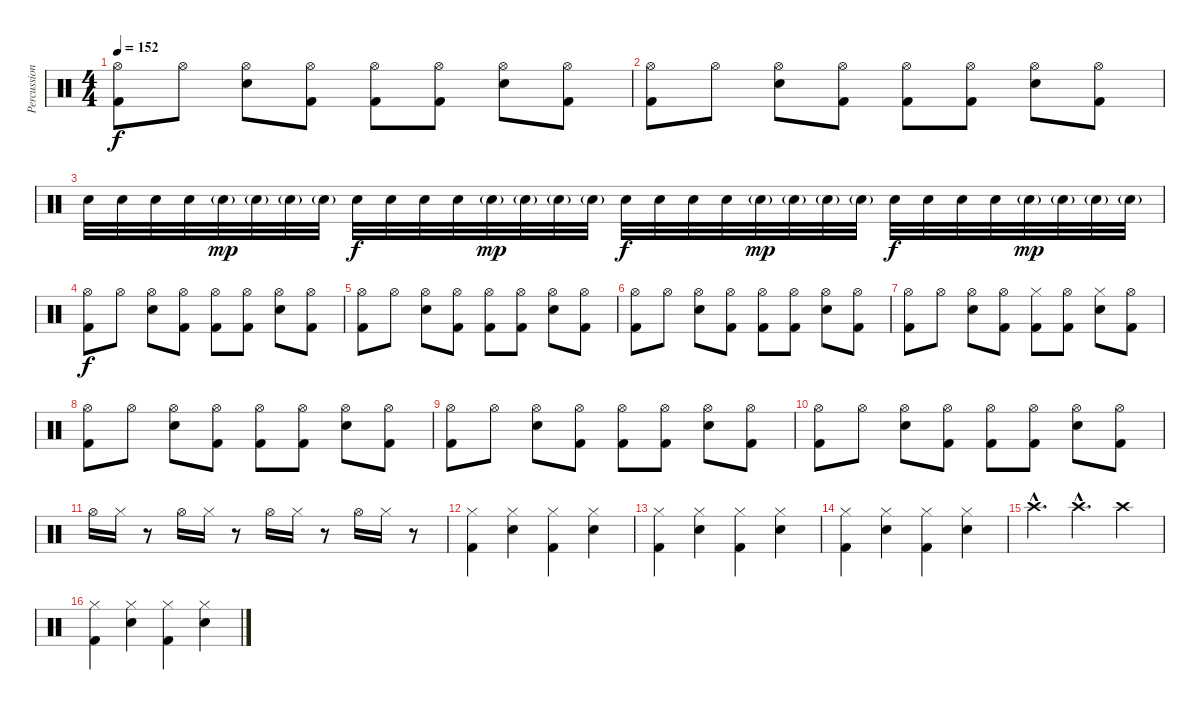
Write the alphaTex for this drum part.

\track ("Percussion" "Percussion") {instrument percussion}
\staff {score}
\articulation defaults
\ts (4 4)
\tempo 152
\clef neutral
\ks c
("Kick (hit) 2" "Hi-Hat (open)").8{dy f} "Hi-Hat (open)".8 ("Snare (hit) 2" "Hi-Hat (open)").8 ("Kick (hit) 2" "Hi-Hat (open)").8 ("Kick (hit) 2" "Hi-Hat (open)").8 ("Kick (hit) 2" "Hi-Hat (open)").8 ("Snare (hit) 2" "Hi-Hat (open)").8 ("Kick (hit) 2" "Hi-Hat (open)").8 |
("Kick (hit) 2" "Hi-Hat (open)").8 "Hi-Hat (open)".8 ("Snare (hit) 2" "Hi-Hat (open)").8 ("Kick (hit) 2" "Hi-Hat (open)").8 ("Kick (hit) 2" "Hi-Hat (open)").8 ("Kick (hit) 2" "Hi-Hat (open)").8 ("Snare (hit) 2" "Hi-Hat (open)").8 ("Kick (hit) 2" "Hi-Hat (open)").8 |
"Snare (hit) 2".32 "Snare (hit) 2".32 "Snare (hit) 2".32 "Snare (hit) 2".32 "Snare (hit) 2"{g}.32{dy mp} "Snare (hit) 2"{g}.32 "Snare (hit) 2"{g}.32 "Snare (hit) 2"{g}.32 "Snare (hit) 2".32{dy f} "Snare (hit) 2".32 "Snare (hit) 2".32 "Snare (hit) 2".32 "Snare (hit) 2"{g}.32{dy mp} "Snare (hit) 2"{g}.32 "Snare (hit) 2"{g}.32 "Snare (hit) 2"{g}.32 "Snare (hit) 2".32{dy f} "Snare (hit) 2".32 "Snare (hit) 2".32 "Snare (hit) 2".32 "Snare (hit) 2"{g}.32{dy mp} "Snare (hit) 2"{g}.32 "Snare (hit) 2"{g}.32 "Snare (hit) 2"{g}.32 "Snare (hit) 2".32{dy f} "Snare (hit) 2".32 "Snare (hit) 2".32 "Snare (hit) 2".32 "Snare (hit) 2"{g}.32{dy mp} "Snare (hit) 2"{g}.32 "Snare (hit) 2"{g}.32 "Snare (hit) 2"{g}.32 |
("Kick (hit) 2" "Hi-Hat (open)").8{dy f} "Hi-Hat (open)".8 ("Snare (hit) 2" "Hi-Hat (open)").8 ("Kick (hit) 2" "Hi-Hat (open)").8 ("Kick (hit) 2" "Hi-Hat (open)").8 ("Kick (hit) 2" "Hi-Hat (open)").8 ("Snare (hit) 2" "Hi-Hat (open)").8 ("Kick (hit) 2" "Hi-Hat (open)").8 |
("Kick (hit) 2" "Hi-Hat (open)").8 "Hi-Hat (open)".8 ("Snare (hit) 2" "Hi-Hat (open)").8 ("Kick (hit) 2" "Hi-Hat (open)").8 ("Kick (hit) 2" "Hi-Hat (open)").8 ("Kick (hit) 2" "Hi-Hat (open)").8 ("Snare (hit) 2" "Hi-Hat (open)").8 ("Kick (hit) 2" "Hi-Hat (open)").8 |
("Kick (hit) 2" "Hi-Hat (open)").8 "Hi-Hat (open)".8 ("Snare (hit) 2" "Hi-Hat (open)").8 ("Kick (hit) 2" "Hi-Hat (open)").8 ("Kick (hit) 2" "Hi-Hat (open)").8 ("Kick (hit) 2" "Hi-Hat (open)").8 ("Snare (hit) 2" "Hi-Hat (open)").8 ("Kick (hit) 2" "Hi-Hat (open)").8 |
("Kick (hit) 2" "Hi-Hat (open)").8 "Hi-Hat (open)".8 ("Snare (hit) 2" "Hi-Hat (open)").8 ("Kick (hit) 2" "Hi-Hat (open)").8 ("Kick (hit) 2" "Hi-Hat (closed)").8 ("Kick (hit) 2" "Hi-Hat (open)").8 ("Snare (hit) 2" "Hi-Hat (closed)").8 ("Kick (hit) 2" "Hi-Hat (open)").8 |
("Kick (hit) 2" "Hi-Hat (open)").8 "Hi-Hat (open)".8 ("Snare (hit) 2" "Hi-Hat (open)").8 ("Kick (hit) 2" "Hi-Hat (open)").8 ("Kick (hit) 2" "Hi-Hat (open)").8 ("Kick (hit) 2" "Hi-Hat (open)").8 ("Snare (hit) 2" "Hi-Hat (open)").8 ("Kick (hit) 2" "Hi-Hat (open)").8 |
("Kick (hit) 2" "Hi-Hat (open)").8 "Hi-Hat (open)".8 ("Snare (hit) 2" "Hi-Hat (open)").8 ("Kick (hit) 2" "Hi-Hat (open)").8 ("Kick (hit) 2" "Hi-Hat (open)").8 ("Kick (hit) 2" "Hi-Hat (open)").8 ("Snare (hit) 2" "Hi-Hat (open)").8 ("Kick (hit) 2" "Hi-Hat (open)").8 |
("Kick (hit) 2" "Hi-Hat (open)").8 "Hi-Hat (open)".8 ("Snare (hit) 2" "Hi-Hat (open)").8 ("Kick (hit) 2" "Hi-Hat (open)").8 ("Kick (hit) 2" "Hi-Hat (open)").8 ("Kick (hit) 2" "Hi-Hat (open)").8 ("Snare (hit) 2" "Hi-Hat (open)").8 ("Kick (hit) 2" "Hi-Hat (open)").8 |
"Hi-Hat (open)".16 "Hi-Hat (closed)".16 r.8 "Hi-Hat (open)".16 "Hi-Hat (closed)".16 r.8 "Hi-Hat (open)".16 "Hi-Hat (closed)".16 r.8 "Hi-Hat (open)".16 "Hi-Hat (closed)".16 r.8 |
("Kick (hit) 2" "Hi-Hat (closed)").4 ("Snare (hit) 2" "Hi-Hat (closed)").4 ("Kick (hit) 2" "Hi-Hat (closed)").4 ("Snare (hit) 2" "Hi-Hat (closed)").4 |
("Kick (hit) 2" "Hi-Hat (closed)").4 ("Snare (hit) 2" "Hi-Hat (closed)").4 ("Kick (hit) 2" "Hi-Hat (closed)").4 ("Snare (hit) 2" "Hi-Hat (closed)").4 |
("Kick (hit) 2" "Hi-Hat (closed)").4 ("Snare (hit) 2" "Hi-Hat (closed)").4 ("Kick (hit) 2" "Hi-Hat (closed)").4 ("Snare (hit) 2" "Hi-Hat (closed)").4 |
"Crash high (hit)"{hac}.4{d} "Crash high (hit)"{hac}.4{d} "Crash high (hit)".4 |
("Kick (hit) 2" "Hi-Hat (closed)").4 ("Snare (hit) 2" "Hi-Hat (closed)").4 ("Kick (hit) 2" "Hi-Hat (closed)").4 ("Snare (hit) 2" "Hi-Hat (closed)").4
